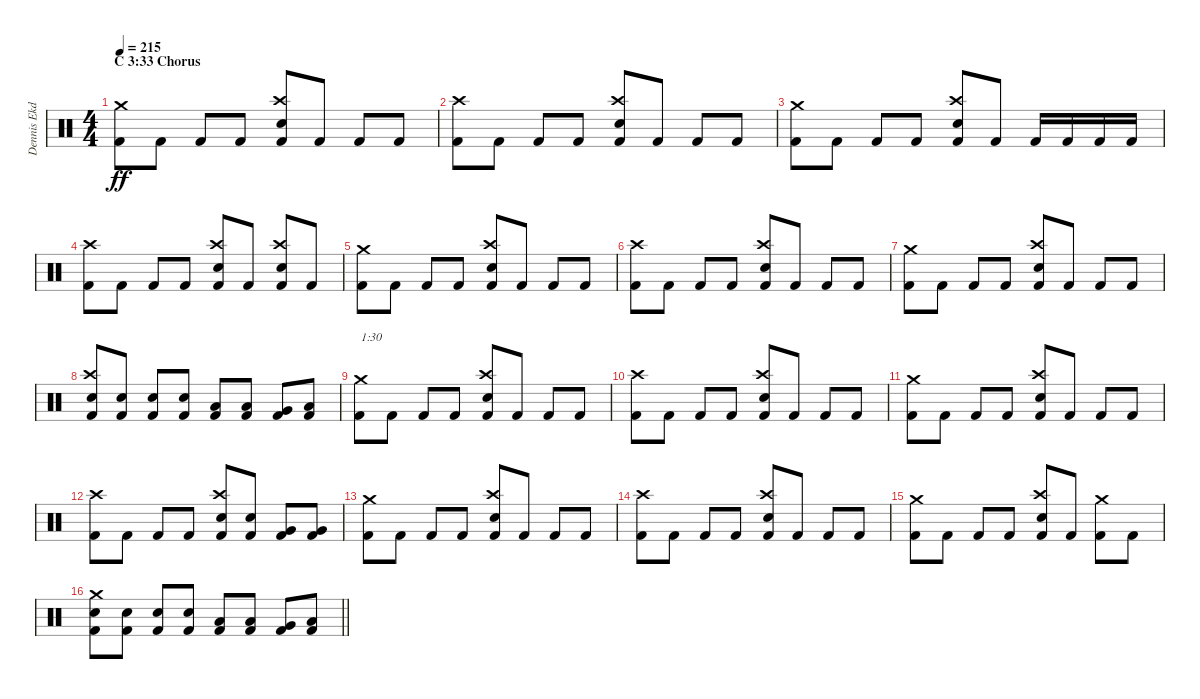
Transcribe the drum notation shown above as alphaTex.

\track ("Dennis Ekdahl      (Drums)" "Dennis Ekd") {instrument percussion}
\staff {score}
\articulation defaults
\ts (4 4)
\section ("" "C 3:33 Chorus")
\tempo 215
\clef neutral
\ks c
("Crash medium (hit)" "Kick (hit) 2").8{dy ff} "Kick (hit) 2".8 "Kick (hit) 2".8 "Kick (hit) 2".8 ("Crash high (hit)" "Electric Snare (hit)" "Kick (hit) 2").8 "Kick (hit) 2".8 "Kick (hit) 2".8 "Kick (hit) 2".8 |
("Crash high (hit)" "Kick (hit) 2").8 "Kick (hit) 2".8 "Kick (hit) 2".8 "Kick (hit) 2".8 ("Crash high (hit)" "Electric Snare (hit)" "Kick (hit) 2").8 "Kick (hit) 2".8 "Kick (hit) 2".8 "Kick (hit) 2".8 |
("Crash medium (hit)" "Kick (hit) 2").8 "Kick (hit) 2".8 "Kick (hit) 2".8 "Kick (hit) 2".8 ("Crash high (hit)" "Electric Snare (hit)" "Kick (hit) 2").8 "Kick (hit) 2".8 "Kick (hit) 2".16 "Kick (hit) 2".16 "Kick (hit) 2".16 "Kick (hit) 2".16 |
("Crash high (hit)" "Kick (hit) 2").8 "Kick (hit) 2".8 "Kick (hit) 2".8 "Kick (hit) 2".8 ("Crash high (hit)" "Electric Snare (hit)" "Kick (hit) 2").8 "Kick (hit) 2".8 ("Crash high (hit)" "Electric Snare (hit)" "Kick (hit) 2").8 "Kick (hit) 2".8 |
("Crash medium (hit)" "Kick (hit) 2").8 "Kick (hit) 2".8 "Kick (hit) 2".8 "Kick (hit) 2".8 ("Crash high (hit)" "Electric Snare (hit)" "Kick (hit) 2").8 "Kick (hit) 2".8 "Kick (hit) 2".8 "Kick (hit) 2".8 |
("Crash high (hit)" "Kick (hit) 2").8 "Kick (hit) 2".8 "Kick (hit) 2".8 "Kick (hit) 2".8 ("Crash high (hit)" "Electric Snare (hit)" "Kick (hit) 2").8 "Kick (hit) 2".8 "Kick (hit) 2".8 "Kick (hit) 2".8 |
("Crash medium (hit)" "Kick (hit) 2").8 "Kick (hit) 2".8 "Kick (hit) 2".8 "Kick (hit) 2".8 ("Crash high (hit)" "Electric Snare (hit)" "Kick (hit) 2").8 "Kick (hit) 2".8 "Kick (hit) 2".8 "Kick (hit) 2".8 |
("Crash high (hit)" "Electric Snare (hit)" "Kick (hit) 2").8 ("Electric Snare (hit)" "Kick (hit) 2").8 ("Electric Snare (hit)" "Kick (hit) 2").8 ("Electric Snare (hit)" "Kick (hit) 2").8 ("Low Tom (hit)" "Kick (hit) 2").8 ("Low Tom (hit)" "Kick (hit) 2").8 ("Very Low Tom (hit)" "Kick (hit) 2").8 ("Low Floor Tom (hit)" "Kick (hit) 2").8 |
("Crash medium (hit)" "Kick (hit) 2").8{txt "1:30"} "Kick (hit) 2".8 "Kick (hit) 2".8 "Kick (hit) 2".8 ("Crash high (hit)" "Electric Snare (hit)" "Kick (hit) 2").8 "Kick (hit) 2".8 "Kick (hit) 2".8 "Kick (hit) 2".8 |
("Crash high (hit)" "Kick (hit) 2").8 "Kick (hit) 2".8 "Kick (hit) 2".8 "Kick (hit) 2".8 ("Crash high (hit)" "Electric Snare (hit)" "Kick (hit) 2").8 "Kick (hit) 2".8 "Kick (hit) 2".8 "Kick (hit) 2".8 |
("Crash medium (hit)" "Kick (hit) 2").8 "Kick (hit) 2".8 "Kick (hit) 2".8 "Kick (hit) 2".8 ("Crash high (hit)" "Electric Snare (hit)" "Kick (hit) 2").8 "Kick (hit) 2".8 "Kick (hit) 2".8 "Kick (hit) 2".8 |
("Crash high (hit)" "Kick (hit) 2").8 "Kick (hit) 2".8 "Kick (hit) 2".8 "Kick (hit) 2".8 ("Crash high (hit)" "Electric Snare (hit)" "Kick (hit) 2").8 ("Electric Snare (hit)" "Kick (hit) 2").8 ("Very Low Tom (hit)" "Kick (hit) 2").8 ("Very Low Tom (hit)" "Kick (hit) 2").8 |
("Crash medium (hit)" "Kick (hit) 2").8 "Kick (hit) 2".8 "Kick (hit) 2".8 "Kick (hit) 2".8 ("Crash high (hit)" "Electric Snare (hit)" "Kick (hit) 2").8 "Kick (hit) 2".8 "Kick (hit) 2".8 "Kick (hit) 2".8 |
("Crash high (hit)" "Kick (hit) 2").8 "Kick (hit) 2".8 "Kick (hit) 2".8 "Kick (hit) 2".8 ("Crash high (hit)" "Electric Snare (hit)" "Kick (hit) 2").8 "Kick (hit) 2".8 "Kick (hit) 2".8 "Kick (hit) 2".8 |
("Crash medium (hit)" "Kick (hit) 2").8 "Kick (hit) 2".8 "Kick (hit) 2".8 "Kick (hit) 2".8 ("Crash high (hit)" "Electric Snare (hit)" "Kick (hit) 2").8 "Kick (hit) 2".8 ("Crash medium (hit)" "Kick (hit) 2").8 "Kick (hit) 2".8 |
\barLineRight lightlight
("Crash medium (hit)" "Electric Snare (hit)" "Kick (hit) 2").8 ("Electric Snare (hit)" "Kick (hit) 2").8 ("Electric Snare (hit)" "Kick (hit) 2").8 ("Electric Snare (hit)" "Kick (hit) 2").8 ("Low Tom (hit)" "Kick (hit) 2").8 ("Low Tom (hit)" "Kick (hit) 2").8 ("Very Low Tom (hit)" "Kick (hit) 2").8 ("Low Floor Tom (hit)" "Kick (hit) 2").8
